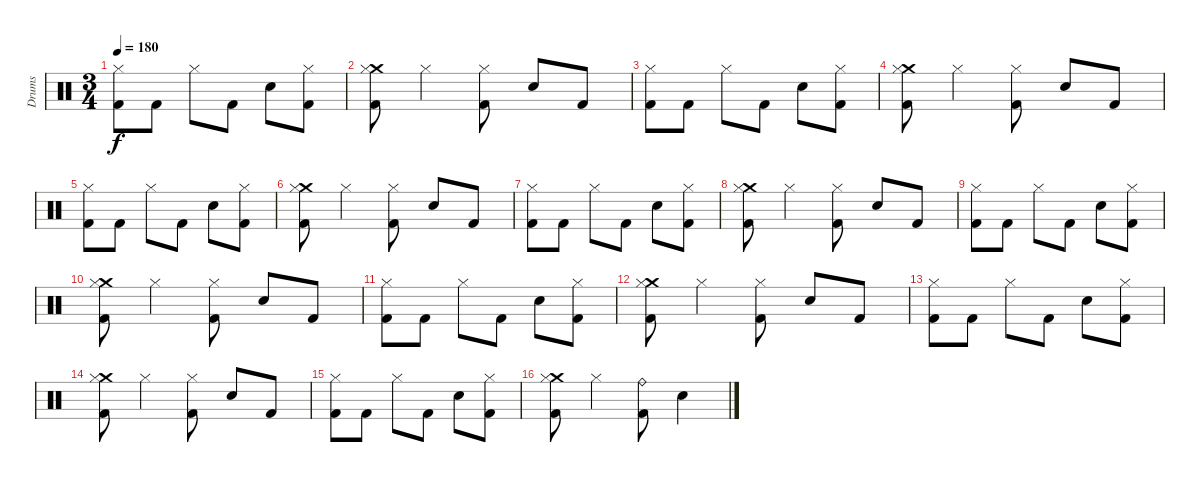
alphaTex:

\track ("Drums" "Drums") {instrument percussion}
\staff {score}
\articulation defaults
\ts (3 4)
\tempo 180
\clef neutral
\ks c
("Hi-Hat (closed)" "Kick (hit) 2").8{dy f} "Kick (hit) 2".8 "Hi-Hat (closed)".8 "Kick (hit) 2".8 "Snare (hit) 2".8 ("Hi-Hat (closed)" "Kick (hit) 2").8 |
("Crash medium (hit)" "Hi-Hat (closed)" "Kick (hit) 2").8 "Hi-Hat (closed)".4 ("Hi-Hat (closed)" "Kick (hit) 2").8 "Snare (hit) 2".8 "Kick (hit) 2".8 |
("Hi-Hat (closed)" "Kick (hit) 2").8 "Kick (hit) 2".8 "Hi-Hat (closed)".8 "Kick (hit) 2".8 "Snare (hit) 2".8 ("Hi-Hat (closed)" "Kick (hit) 2").8 |
("Crash medium (hit)" "Hi-Hat (closed)" "Kick (hit) 2").8 "Hi-Hat (closed)".4 ("Hi-Hat (closed)" "Kick (hit) 2").8 "Snare (hit) 2".8 "Kick (hit) 2".8 |
("Hi-Hat (closed)" "Kick (hit) 2").8 "Kick (hit) 2".8 "Hi-Hat (closed)".8 "Kick (hit) 2".8 "Snare (hit) 2".8 ("Hi-Hat (closed)" "Kick (hit) 2").8 |
("Crash medium (hit)" "Hi-Hat (closed)" "Kick (hit) 2").8 "Hi-Hat (closed)".4 ("Hi-Hat (closed)" "Kick (hit) 2").8 "Snare (hit) 2".8 "Kick (hit) 2".8 |
("Hi-Hat (closed)" "Kick (hit) 2").8 "Kick (hit) 2".8 "Hi-Hat (closed)".8 "Kick (hit) 2".8 "Snare (hit) 2".8 ("Hi-Hat (closed)" "Kick (hit) 2").8 |
("Crash medium (hit)" "Hi-Hat (closed)" "Kick (hit) 2").8 "Hi-Hat (closed)".4 ("Hi-Hat (closed)" "Kick (hit) 2").8 "Snare (hit) 2".8 "Kick (hit) 2".8 |
("Hi-Hat (closed)" "Kick (hit) 2").8 "Kick (hit) 2".8 "Hi-Hat (closed)".8 "Kick (hit) 2".8 "Snare (hit) 2".8 ("Hi-Hat (closed)" "Kick (hit) 2").8 |
("Crash medium (hit)" "Hi-Hat (closed)" "Kick (hit) 2").8 "Hi-Hat (closed)".4 ("Hi-Hat (closed)" "Kick (hit) 2").8 "Snare (hit) 2".8 "Kick (hit) 2".8 |
("Hi-Hat (closed)" "Kick (hit) 2").8 "Kick (hit) 2".8 "Hi-Hat (closed)".8 "Kick (hit) 2".8 "Snare (hit) 2".8 ("Hi-Hat (closed)" "Kick (hit) 2").8 |
("Crash medium (hit)" "Hi-Hat (closed)" "Kick (hit) 2").8 "Hi-Hat (closed)".4 ("Hi-Hat (closed)" "Kick (hit) 2").8 "Snare (hit) 2".8 "Kick (hit) 2".8 |
("Hi-Hat (closed)" "Kick (hit) 2").8 "Kick (hit) 2".8 "Hi-Hat (closed)".8 "Kick (hit) 2".8 "Snare (hit) 2".8 ("Hi-Hat (closed)" "Kick (hit) 2").8 |
("Crash medium (hit)" "Hi-Hat (closed)" "Kick (hit) 2").8 "Hi-Hat (closed)".4 ("Hi-Hat (closed)" "Kick (hit) 2").8 "Snare (hit) 2".8 "Kick (hit) 2".8 |
("Hi-Hat (closed)" "Kick (hit) 2").8 "Kick (hit) 2".8 "Hi-Hat (closed)".8 "Kick (hit) 2".8 "Snare (hit) 2".8 ("Hi-Hat (closed)" "Kick (hit) 2").8 |
("Crash medium (hit)" "Hi-Hat (closed)" "Kick (hit) 2").8 "Hi-Hat (closed)".4 ("Ride (bell)" "Kick (hit) 2").8 "Snare (hit) 2".4
